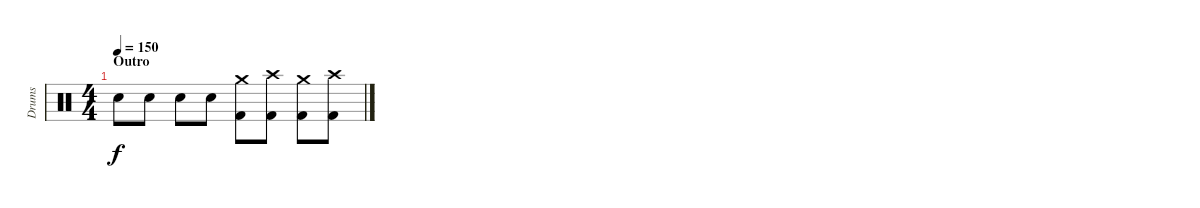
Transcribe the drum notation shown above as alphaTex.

\track ("Drums" "Drums") {instrument percussion}
\staff {score}
\articulation defaults
\ts (4 4)
\section ("" "Outro")
\tempo 150
\clef neutral
\ks c "Electric Snare (hit)".8{dy f} "Electric Snare (hit)".8 "Electric Snare (hit)".8 "Electric Snare (hit)".8
("Kick (hit) 2" "Crash medium (hit)").8 ("Kick (hit) 2" "Crash high (hit)").8 ("Kick (hit) 2" "Crash medium (hit)").8 ("Crash high (hit)" "Kick (hit) 2").8
